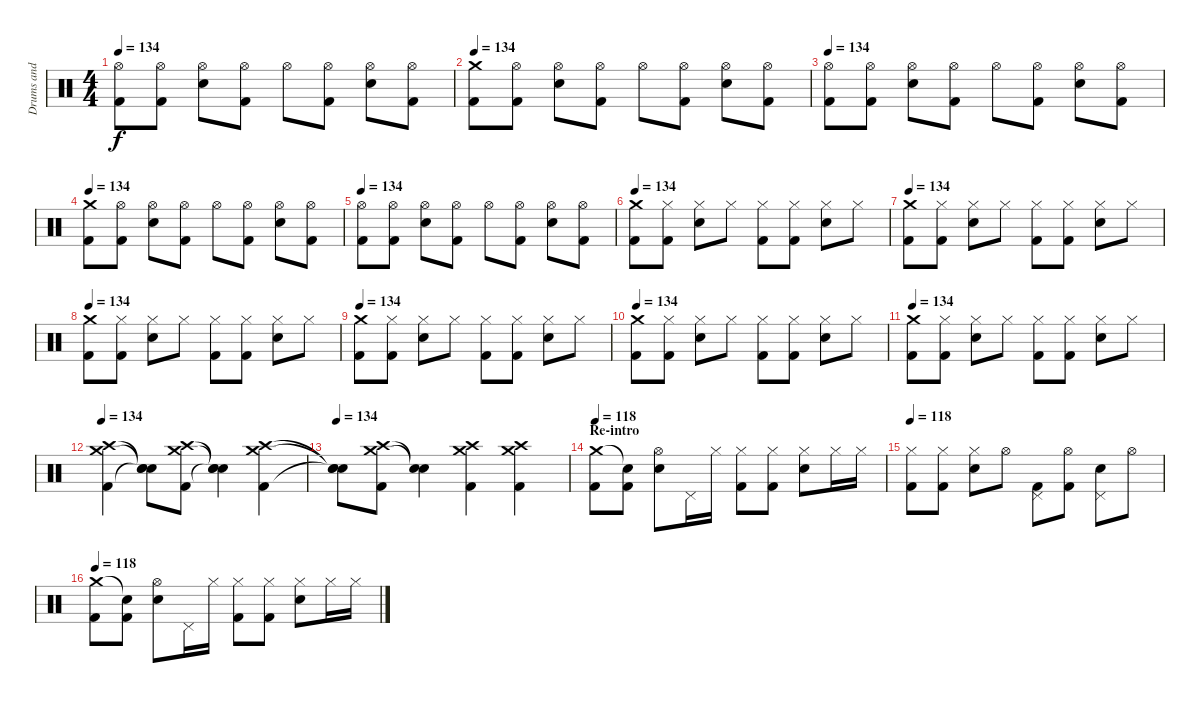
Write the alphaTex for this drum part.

\track ("Drums and Percussion" "Drums and ") {instrument percussion}
\staff {score}
\articulation defaults
\ts (4 4)
\tempo 134
\clef neutral
\ks c
("Hi-Hat (open)" "Kick (hit) 2").8{dy f} ("Hi-Hat (open)" "Kick (hit) 2").8 ("Hi-Hat (open)" "Electric Snare (hit)").8 ("Hi-Hat (open)" "Kick (hit) 2").8 "Hi-Hat (open)".8 ("Hi-Hat (open)" "Kick (hit) 2").8 ("Hi-Hat (open)" "Electric Snare (hit)").8 ("Hi-Hat (open)" "Kick (hit) 2").8 |
\tempo 134
("Crash medium (hit)" "Kick (hit) 2").8 ("Hi-Hat (open)" "Kick (hit) 2").8 ("Hi-Hat (open)" "Electric Snare (hit)").8 ("Hi-Hat (open)" "Kick (hit) 2").8 "Hi-Hat (open)".8 ("Hi-Hat (open)" "Kick (hit) 2").8 ("Hi-Hat (open)" "Electric Snare (hit)").8 ("Hi-Hat (open)" "Kick (hit) 2").8 |
\tempo 134
("Hi-Hat (open)" "Kick (hit) 2").8 ("Hi-Hat (open)" "Kick (hit) 2").8 ("Hi-Hat (open)" "Electric Snare (hit)").8 ("Hi-Hat (open)" "Kick (hit) 2").8 "Hi-Hat (open)".8 ("Hi-Hat (open)" "Kick (hit) 2").8 ("Hi-Hat (open)" "Electric Snare (hit)").8 ("Hi-Hat (open)" "Kick (hit) 2").8 |
\tempo 134
("Crash medium (hit)" "Kick (hit) 2").8 ("Hi-Hat (open)" "Kick (hit) 2").8 ("Hi-Hat (open)" "Electric Snare (hit)").8 ("Hi-Hat (open)" "Kick (hit) 2").8 "Hi-Hat (open)".8 ("Hi-Hat (open)" "Kick (hit) 2").8 ("Hi-Hat (open)" "Electric Snare (hit)").8 ("Hi-Hat (open)" "Kick (hit) 2").8 |
\tempo 134
("Hi-Hat (open)" "Kick (hit) 2").8 ("Hi-Hat (open)" "Kick (hit) 2").8 ("Hi-Hat (open)" "Electric Snare (hit)").8 ("Hi-Hat (open)" "Kick (hit) 2").8 "Hi-Hat (open)".8 ("Hi-Hat (open)" "Kick (hit) 2").8 ("Hi-Hat (open)" "Electric Snare (hit)").8 ("Hi-Hat (open)" "Kick (hit) 2").8 |
\tempo 134
("Crash medium (hit)" "Kick (hit) 2").8 ("Hi-Hat (closed)" "Kick (hit) 2").8 ("Hi-Hat (closed)" "Electric Snare (hit)").8 "Hi-Hat (closed)".8 ("Hi-Hat (closed)" "Kick (hit) 2").8 ("Hi-Hat (closed)" "Kick (hit) 2").8 ("Hi-Hat (closed)" "Electric Snare (hit)").8 "Hi-Hat (closed)".8 |
\tempo 134
("Crash medium (hit)" "Kick (hit) 2").8 ("Hi-Hat (closed)" "Kick (hit) 2").8 ("Hi-Hat (closed)" "Electric Snare (hit)").8 "Hi-Hat (closed)".8 ("Hi-Hat (closed)" "Kick (hit) 2").8 ("Hi-Hat (closed)" "Kick (hit) 2").8 ("Hi-Hat (closed)" "Electric Snare (hit)").8 "Hi-Hat (closed)".8 |
\tempo 134
("Crash medium (hit)" "Kick (hit) 2").8 ("Hi-Hat (closed)" "Kick (hit) 2").8 ("Hi-Hat (closed)" "Electric Snare (hit)").8 "Hi-Hat (closed)".8 ("Hi-Hat (closed)" "Kick (hit) 2").8 ("Hi-Hat (closed)" "Kick (hit) 2").8 ("Hi-Hat (closed)" "Electric Snare (hit)").8 "Hi-Hat (closed)".8 |
\tempo 134
("Crash medium (hit)" "Kick (hit) 2").8 ("Hi-Hat (closed)" "Kick (hit) 2").8 ("Hi-Hat (closed)" "Electric Snare (hit)").8 "Hi-Hat (closed)".8 ("Hi-Hat (closed)" "Kick (hit) 2").8 ("Hi-Hat (closed)" "Kick (hit) 2").8 ("Hi-Hat (closed)" "Electric Snare (hit)").8 "Hi-Hat (closed)".8 |
\tempo 134
("Crash medium (hit)" "Kick (hit) 2").8 ("Hi-Hat (closed)" "Kick (hit) 2").8 ("Hi-Hat (closed)" "Electric Snare (hit)").8 "Hi-Hat (closed)".8 ("Hi-Hat (closed)" "Kick (hit) 2").8 ("Hi-Hat (closed)" "Kick (hit) 2").8 ("Hi-Hat (closed)" "Electric Snare (hit)").8 "Hi-Hat (closed)".8 |
\tempo 134
("Crash medium (hit)" "Kick (hit) 2").8 ("Hi-Hat (closed)" "Kick (hit) 2").8 ("Hi-Hat (closed)" "Electric Snare (hit)").8 "Hi-Hat (closed)".8 ("Hi-Hat (closed)" "Kick (hit) 2").8 ("Hi-Hat (closed)" "Kick (hit) 2").8 ("Hi-Hat (closed)" "Electric Snare (hit)").8 "Hi-Hat (closed)".8 |
\tempo 134
("Crash medium (hit)" "Crash high (hit)" "Kick (hit) 2").4 ("Snare (hit)"{t} "Snare (hit)"{t} "Snare (hit)"{t}).8 ("Crash medium (hit)" "Crash high (hit)" "Kick (hit) 2").8 ("Snare (hit)"{t} "Snare (hit)"{t} "Snare (hit)"{t}).4 ("Crash medium (hit)" "Crash high (hit)" "Kick (hit) 2").4 |
\tempo 134
("Snare (hit)"{t} "Snare (hit)"{t} "Snare (hit)"{t}).8 ("Crash medium (hit)" "Crash high (hit)" "Kick (hit) 2").8 ("Snare (hit)"{t} "Snare (hit)"{t}).4 ("Crash medium (hit)" "Crash high (hit)" "Kick (hit) 2").4 ("Crash medium (hit)" "Crash high (hit)" "Kick (hit) 2").4 |
\section ("" "Re-intro")
\tempo 118
("Crash medium (hit)" "Kick (hit) 2").8 ("Snare (hit)"{t} "Kick (hit) 2").8 ("Hi-Hat (open)" "Electric Snare (hit)").8 "Pedal Hi-Hat (hit)".16 "Hi-Hat (closed)".16 ("Hi-Hat (closed)" "Kick (hit) 2").8 ("Hi-Hat (closed)" "Kick (hit) 2").8 ("Hi-Hat (closed)" "Electric Snare (hit)").8 "Hi-Hat (closed)".16 "Hi-Hat (closed)".16 |
\tempo 118
("Hi-Hat (closed)" "Kick (hit) 2").8 ("Hi-Hat (closed)" "Kick (hit) 2").8 ("Hi-Hat (closed)" "Electric Snare (hit)").8 "Hi-Hat (open)".8 ("Pedal Hi-Hat (hit)" "Kick (hit) 2").8 ("Hi-Hat (open)" "Kick (hit) 2").8 ("Pedal Hi-Hat (hit)" "Electric Snare (hit)").8 "Hi-Hat (open)".8 |
\tempo 118
("Crash medium (hit)" "Kick (hit) 2").8 ("Snare (hit)"{t} "Kick (hit) 2").8 ("Hi-Hat (open)" "Electric Snare (hit)").8 "Pedal Hi-Hat (hit)".16 "Hi-Hat (closed)".16 ("Hi-Hat (closed)" "Kick (hit) 2").8 ("Hi-Hat (closed)" "Kick (hit) 2").8 ("Hi-Hat (closed)" "Electric Snare (hit)").8 "Hi-Hat (closed)".16 "Hi-Hat (closed)".16
